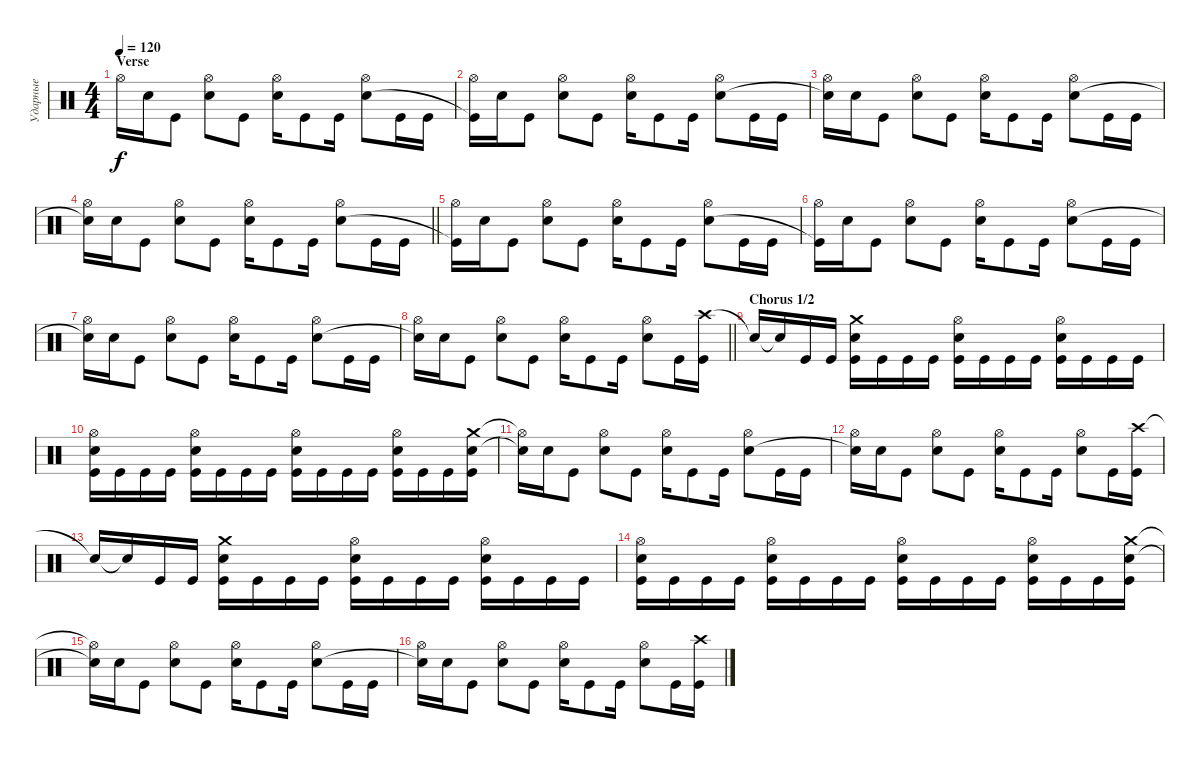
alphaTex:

\track ("Ударные" "Ударные") {instrument percussion}
\staff {score}
\articulation defaults
\ts (4 4)
\section ("" "Verse")
\tempo 120
\clef neutral
\ks c "Hi-Hat (open)".16{dy f} "Electric Snare (hit)".16 "Kick (hit)".8
("Hi-Hat (open)" "Electric Snare (hit)").8 "Kick (hit)".8 ("Hi-Hat (open)" "Electric Snare (hit)").16 "Kick (hit)".8 "Kick (hit)".16 ("Hi-Hat (open)" "Electric Snare (hit)").8 "Kick (hit)".16 "Kick (hit)".16 |
("Hi-Hat (open)" "Kick (hit)"{t}).16 "Electric Snare (hit)".16 "Kick (hit)".8 ("Hi-Hat (open)" "Electric Snare (hit)").8 "Kick (hit)".8 ("Hi-Hat (open)" "Electric Snare (hit)").16 "Kick (hit)".8 "Kick (hit)".16 ("Hi-Hat (open)" "Electric Snare (hit)").8 "Kick (hit)".16 "Kick (hit)".16 |
("Hi-Hat (open)" "Snare (hit)"{t}).16 "Electric Snare (hit)".16 "Kick (hit)".8 ("Hi-Hat (open)" "Electric Snare (hit)").8 "Kick (hit)".8 ("Hi-Hat (open)" "Electric Snare (hit)").16 "Kick (hit)".8 "Kick (hit)".16 ("Hi-Hat (open)" "Electric Snare (hit)").8 "Kick (hit)".16 "Kick (hit)".16 |
\barLineRight lightlight
("Hi-Hat (open)" "Snare (hit)"{t}).16 "Electric Snare (hit)".16 "Kick (hit)".8 ("Hi-Hat (open)" "Electric Snare (hit)").8 "Kick (hit)".8 ("Hi-Hat (open)" "Electric Snare (hit)").16 "Kick (hit)".8 "Kick (hit)".16 ("Hi-Hat (open)" "Electric Snare (hit)").8 "Kick (hit)".16 "Kick (hit)".16 |
("Hi-Hat (open)" "Kick (hit)"{t}).16 "Electric Snare (hit)".16 "Kick (hit)".8 ("Hi-Hat (open)" "Electric Snare (hit)").8 "Kick (hit)".8 ("Hi-Hat (open)" "Electric Snare (hit)").16 "Kick (hit)".8 "Kick (hit)".16 ("Hi-Hat (open)" "Electric Snare (hit)").8 "Kick (hit)".16 "Kick (hit)".16 |
("Hi-Hat (open)" "Kick (hit)"{t}).16 "Electric Snare (hit)".16 "Kick (hit)".8 ("Hi-Hat (open)" "Electric Snare (hit)").8 "Kick (hit)".8 ("Hi-Hat (open)" "Electric Snare (hit)").16 "Kick (hit)".8 "Kick (hit)".16 ("Hi-Hat (open)" "Electric Snare (hit)").8 "Kick (hit)".16 "Kick (hit)".16 |
("Hi-Hat (open)" "Snare (hit)"{t}).16 "Electric Snare (hit)".16 "Kick (hit)".8 ("Hi-Hat (open)" "Electric Snare (hit)").8 "Kick (hit)".8 ("Hi-Hat (open)" "Electric Snare (hit)").16 "Kick (hit)".8 "Kick (hit)".16 ("Hi-Hat (open)" "Electric Snare (hit)").8 "Kick (hit)".16 "Kick (hit)".16 |
\barLineRight lightlight
("Hi-Hat (open)" "Snare (hit)"{t}).16 "Electric Snare (hit)".16 "Kick (hit)".8 ("Hi-Hat (open)" "Electric Snare (hit)").8 "Kick (hit)".8 ("Hi-Hat (open)" "Electric Snare (hit)").16 "Kick (hit)".8 "Kick (hit)".16 ("Hi-Hat (open)" "Electric Snare (hit)").8 "Kick (hit)".16 ("Crash high (hit)" "Kick (hit)").16 |
\section ("" "Chorus 1/2")
"Snare (hit)"{t}.16 "Snare (hit)"{t}.16 "Kick (hit)".16 "Kick (hit)".16 ("Crash medium (hit)" "Electric Snare (hit)" "Kick (hit)").16 "Kick (hit)".16 "Kick (hit)".16 "Kick (hit)".16 ("Hi-Hat (open)" "Electric Snare (hit)" "Kick (hit)").16 "Kick (hit)".16 "Kick (hit)".16 "Kick (hit)".16 ("Hi-Hat (open)" "Electric Snare (hit)" "Kick (hit)").16 "Kick (hit)".16 "Kick (hit)".16 "Kick (hit)".16 |
("Hi-Hat (open)" "Electric Snare (hit)" "Kick (hit)").16 "Kick (hit)".16 "Kick (hit)".16 "Kick (hit)".16 ("Hi-Hat (open)" "Electric Snare (hit)" "Kick (hit)").16 "Kick (hit)".16 "Kick (hit)".16 "Kick (hit)".16 ("Hi-Hat (open)" "Electric Snare (hit)" "Kick (hit)").16 "Kick (hit)".16 "Kick (hit)".16 "Kick (hit)".16 ("Hi-Hat (open)" "Electric Snare (hit)" "Kick (hit)").16 "Kick (hit)".16 "Kick (hit)".16 ("Crash medium (hit)" "Electric Snare (hit)" "Kick (hit)").16 |
("Hi-Hat (open)"{t} "Snare (hit)"{t}).16 "Electric Snare (hit)".16 "Kick (hit)".8 ("Hi-Hat (open)" "Electric Snare (hit)").8 "Kick (hit)".8 ("Hi-Hat (open)" "Electric Snare (hit)").16 "Kick (hit)".8 "Kick (hit)".16 ("Hi-Hat (open)" "Electric Snare (hit)").8 "Kick (hit)".16 "Kick (hit)".16 |
("Hi-Hat (open)" "Snare (hit)"{t}).16 "Electric Snare (hit)".16 "Kick (hit)".8 ("Hi-Hat (open)" "Electric Snare (hit)").8 "Kick (hit)".8 ("Hi-Hat (open)" "Electric Snare (hit)").16 "Kick (hit)".8 "Kick (hit)".16 ("Hi-Hat (open)" "Electric Snare (hit)").8 "Kick (hit)".16 ("Crash high (hit)" "Kick (hit)").16 |
"Snare (hit)"{t}.16 "Snare (hit)"{t}.16 "Kick (hit)".16 "Kick (hit)".16 ("Crash medium (hit)" "Electric Snare (hit)" "Kick (hit)").16 "Kick (hit)".16 "Kick (hit)".16 "Kick (hit)".16 ("Hi-Hat (open)" "Electric Snare (hit)" "Kick (hit)").16 "Kick (hit)".16 "Kick (hit)".16 "Kick (hit)".16 ("Hi-Hat (open)" "Electric Snare (hit)" "Kick (hit)").16 "Kick (hit)".16 "Kick (hit)".16 "Kick (hit)".16 |
("Hi-Hat (open)" "Electric Snare (hit)" "Kick (hit)").16 "Kick (hit)".16 "Kick (hit)".16 "Kick (hit)".16 ("Hi-Hat (open)" "Electric Snare (hit)" "Kick (hit)").16 "Kick (hit)".16 "Kick (hit)".16 "Kick (hit)".16 ("Hi-Hat (open)" "Electric Snare (hit)" "Kick (hit)").16 "Kick (hit)".16 "Kick (hit)".16 "Kick (hit)".16 ("Hi-Hat (open)" "Electric Snare (hit)" "Kick (hit)").16 "Kick (hit)".16 "Kick (hit)".16 ("Crash medium (hit)" "Electric Snare (hit)" "Kick (hit)").16 |
("Hi-Hat (open)"{t} "Snare (hit)"{t}).16 "Electric Snare (hit)".16 "Kick (hit)".8 ("Hi-Hat (open)" "Electric Snare (hit)").8 "Kick (hit)".8 ("Hi-Hat (open)" "Electric Snare (hit)").16 "Kick (hit)".8 "Kick (hit)".16 ("Hi-Hat (open)" "Electric Snare (hit)").8 "Kick (hit)".16 "Kick (hit)".16 |
("Hi-Hat (open)" "Snare (hit)"{t}).16 "Electric Snare (hit)".16 "Kick (hit)".8 ("Hi-Hat (open)" "Electric Snare (hit)").8 "Kick (hit)".8 ("Hi-Hat (open)" "Electric Snare (hit)").16 "Kick (hit)".8 "Kick (hit)".16 ("Hi-Hat (open)" "Electric Snare (hit)").8 "Kick (hit)".16 ("Crash high (hit)" "Kick (hit)").16
